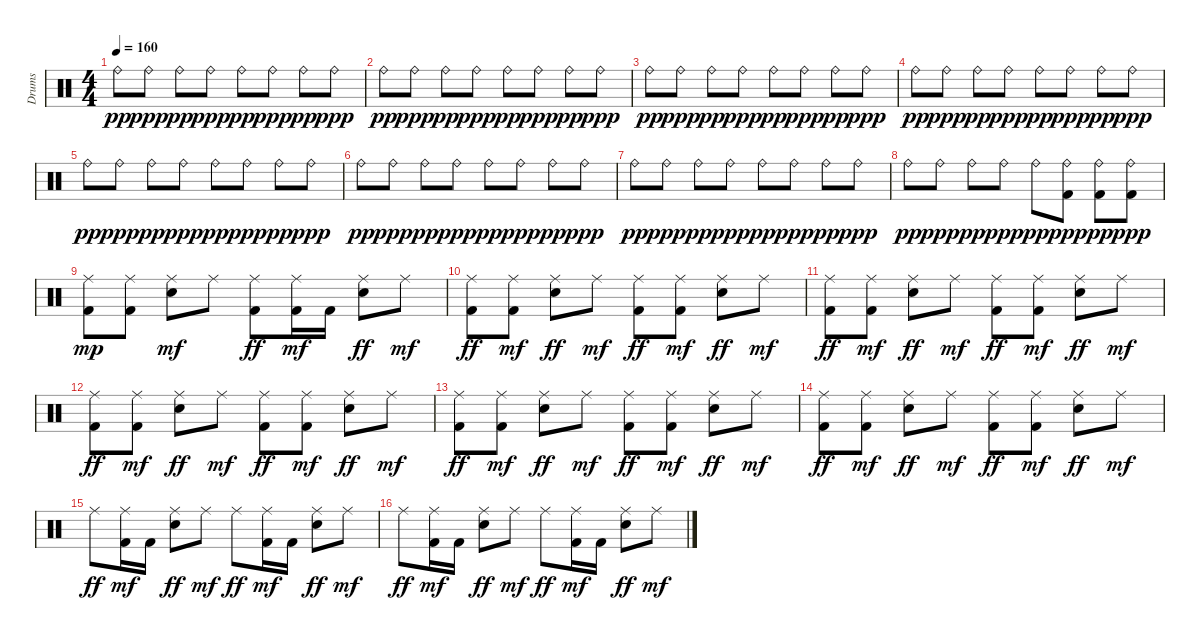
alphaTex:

\track ("Drums" "Drums") {instrument percussion}
\staff {score}
\articulation defaults
\ts (4 4)
\tempo 160
\clef neutral
\ks c "Ride (bell)".8{dy pp} "Ride (bell)".8{dy ppp} "Ride (bell)".8{dy pp} "Ride (bell)".8{dy ppp} "Ride (bell)".8{dy pp} "Ride (bell)".8{dy ppp} "Ride (bell)".8{dy pp} "Ride (bell)".8{dy ppp}
|
"Ride (bell)".8{dy pp} "Ride (bell)".8{dy ppp} "Ride (bell)".8{dy pp} "Ride (bell)".8{dy ppp} "Ride (bell)".8{dy pp} "Ride (bell)".8{dy ppp} "Ride (bell)".8{dy pp} "Ride (bell)".8{dy ppp} |
"Ride (bell)".8{dy pp} "Ride (bell)".8{dy ppp} "Ride (bell)".8{dy pp} "Ride (bell)".8{dy ppp} "Ride (bell)".8{dy pp} "Ride (bell)".8{dy ppp} "Ride (bell)".8{dy pp} "Ride (bell)".8{dy ppp} |
"Ride (bell)".8{dy pp} "Ride (bell)".8{dy ppp} "Ride (bell)".8{dy pp} "Ride (bell)".8{dy ppp} "Ride (bell)".8{dy pp} "Ride (bell)".8{dy ppp} "Ride (bell)".8{dy pp} "Ride (bell)".8{dy ppp} |
"Ride (bell)".8{dy pp} "Ride (bell)".8{dy ppp} "Ride (bell)".8{dy pp} "Ride (bell)".8{dy ppp} "Ride (bell)".8{dy pp} "Ride (bell)".8{dy ppp} "Ride (bell)".8{dy pp} "Ride (bell)".8{dy ppp} |
"Ride (bell)".8{dy pp} "Ride (bell)".8{dy ppp} "Ride (bell)".8{dy pp} "Ride (bell)".8{dy ppp} "Ride (bell)".8{dy pp} "Ride (bell)".8{dy ppp} "Ride (bell)".8{dy pp} "Ride (bell)".8{dy ppp} |
"Ride (bell)".8{dy pp} "Ride (bell)".8{dy ppp} "Ride (bell)".8{dy pp} "Ride (bell)".8{dy ppp} "Ride (bell)".8{dy pp} "Ride (bell)".8{dy ppp} "Ride (bell)".8{dy pp} "Ride (bell)".8{dy ppp} |
"Ride (bell)".8{dy pp} "Ride (bell)".8{dy ppp} "Ride (bell)".8{dy pp} "Ride (bell)".8{dy ppp} "Ride (bell)".8{dy pp} ("Kick (hit) 2" "Ride (bell)").8{dy ppp} ("Kick (hit) 2" "Ride (bell)").8{dy pp} ("Kick (hit) 2" "Ride (bell)").8{dy ppp} |
("Kick (hit) 2" "Ride (middle)").8{dy mp} ("Kick (hit) 2" "Ride (middle)").8 ("Snare (hit) 2" "Ride (middle)").8{dy mf} "Ride (middle)".8 ("Kick (hit) 2" "Ride (middle)").8{dy ff} ("Kick (hit) 2" "Ride (middle)").16{dy mf} "Kick (hit) 2".16 ("Snare (hit) 2" "Ride (middle)").8{dy ff} "Ride (middle)".8{dy mf} |
("Kick (hit) 2" "Ride (middle)").8{dy ff} ("Kick (hit) 2" "Ride (middle)").8{dy mf} ("Snare (hit) 2" "Ride (middle)").8{dy ff} "Ride (middle)".8{dy mf} ("Kick (hit) 2" "Ride (middle)").8{dy ff} ("Kick (hit) 2" "Ride (middle)").8{dy mf} ("Snare (hit) 2" "Ride (middle)").8{dy ff} "Ride (middle)".8{dy mf} |
("Kick (hit) 2" "Ride (middle)").8{dy ff} ("Kick (hit) 2" "Ride (middle)").8{dy mf} ("Snare (hit) 2" "Ride (middle)").8{dy ff} "Ride (middle)".8{dy mf} ("Kick (hit) 2" "Ride (middle)").8{dy ff} ("Kick (hit) 2" "Ride (middle)").8{dy mf} ("Snare (hit) 2" "Ride (middle)").8{dy ff} "Ride (middle)".8{dy mf} |
("Kick (hit) 2" "Ride (middle)").8{dy ff} ("Kick (hit) 2" "Ride (middle)").8{dy mf} ("Snare (hit) 2" "Ride (middle)").8{dy ff} "Ride (middle)".8{dy mf} ("Kick (hit) 2" "Ride (middle)").8{dy ff} ("Kick (hit) 2" "Ride (middle)").8{dy mf} ("Snare (hit) 2" "Ride (middle)").8{dy ff} "Ride (middle)".8{dy mf} |
("Kick (hit) 2" "Ride (middle)").8{dy ff} ("Kick (hit) 2" "Ride (middle)").8{dy mf} ("Snare (hit) 2" "Ride (middle)").8{dy ff} "Ride (middle)".8{dy mf} ("Kick (hit) 2" "Ride (middle)").8{dy ff} ("Kick (hit) 2" "Ride (middle)").8{dy mf} ("Snare (hit) 2" "Ride (middle)").8{dy ff} "Ride (middle)".8{dy mf} |
("Kick (hit) 2" "Ride (middle)").8{dy ff} ("Kick (hit) 2" "Ride (middle)").8{dy mf} ("Snare (hit) 2" "Ride (middle)").8{dy ff} "Ride (middle)".8{dy mf} ("Kick (hit) 2" "Ride (middle)").8{dy ff} ("Kick (hit) 2" "Ride (middle)").8{dy mf} ("Snare (hit) 2" "Ride (middle)").8{dy ff} "Ride (middle)".8{dy mf} |
"Ride (middle)".8{dy ff} ("Kick (hit) 2" "Ride (middle)").16{dy mf} "Kick (hit) 2".16 ("Snare (hit) 2" "Ride (middle)").8{dy ff} "Ride (middle)".8{dy mf} "Ride (middle)".8{dy ff} ("Kick (hit) 2" "Ride (middle)").16{dy mf} "Kick (hit) 2".16 ("Snare (hit) 2" "Ride (middle)").8{dy ff} "Ride (middle)".8{dy mf} |
"Ride (middle)".8{dy ff} ("Kick (hit) 2" "Ride (middle)").16{dy mf} "Kick (hit) 2".16 ("Snare (hit) 2" "Ride (middle)").8{dy ff} "Ride (middle)".8{dy mf} "Ride (middle)".8{dy ff} ("Kick (hit) 2" "Ride (middle)").16{dy mf} "Kick (hit) 2".16 ("Snare (hit) 2" "Ride (middle)").8{dy ff} "Ride (middle)".8{dy mf}
